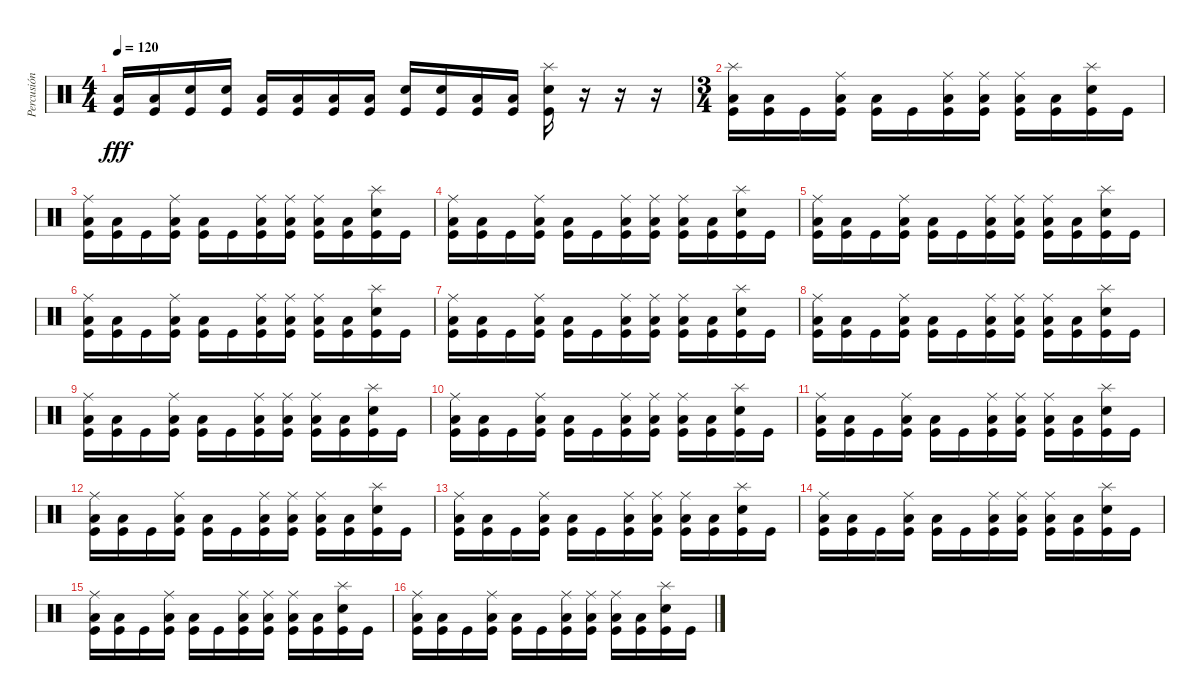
\track ("Percusión" "Percusión") {instrument percussion}
\staff {score}
\articulation defaults
\ts (4 4)
\tempo 120
\clef neutral
\ks c
("Low Floor Tom (hit)" "Kick (hit)").16{dy fff} ("Low Floor Tom (hit)" "Kick (hit)").16 ("Snare (hit) 2" "Kick (hit)").16 ("Snare (hit) 2" "Kick (hit)").16 ("Low Floor Tom (hit)" "Kick (hit)").16 ("Low Floor Tom (hit)" "Kick (hit)").16 ("Low Floor Tom (hit)" "Kick (hit)").16 ("Low Floor Tom (hit)" "Kick (hit)").16 ("Snare (hit) 2" "Kick (hit)").16 ("Snare (hit) 2" "Kick (hit)").16 ("Low Floor Tom (hit)" "Kick (hit)").16 ("Low Floor Tom (hit)" "Kick (hit)").16 ("Splash (hit)" "Snare (hit) 2" "Kick (hit)").16 r.16 r.16 r.16 |
\ts (3 4)
("Splash (hit)" "Low Floor Tom (hit)" "Kick (hit)").16 ("Low Floor Tom (hit)" "Kick (hit)").16 "Kick (hit)".16 ("Ride (middle)" "Low Floor Tom (hit)" "Kick (hit)").16 ("Low Floor Tom (hit)" "Kick (hit)").16 "Kick (hit)".16 ("Ride (middle)" "Low Floor Tom (hit)" "Kick (hit)").16 ("Ride (middle)" "Low Floor Tom (hit)" "Kick (hit)").16 ("Ride (middle)" "Low Floor Tom (hit)" "Kick (hit)").16 ("Low Floor Tom (hit)" "Kick (hit)").16 ("Splash (hit)" "Snare (hit) 2" "Kick (hit)").16 "Kick (hit)".16 |
("Ride (middle)" "Low Floor Tom (hit)" "Kick (hit)").16 ("Low Floor Tom (hit)" "Kick (hit)").16 "Kick (hit)".16 ("Ride (middle)" "Low Floor Tom (hit)" "Kick (hit)").16 ("Low Floor Tom (hit)" "Kick (hit)").16 "Kick (hit)".16 ("Ride (middle)" "Low Floor Tom (hit)" "Kick (hit)").16 ("Ride (middle)" "Low Floor Tom (hit)" "Kick (hit)").16 ("Ride (middle)" "Low Floor Tom (hit)" "Kick (hit)").16 ("Low Floor Tom (hit)" "Kick (hit)").16 ("Splash (hit)" "Snare (hit) 2" "Kick (hit)").16 "Kick (hit)".16 |
("Ride (middle)" "Low Floor Tom (hit)" "Kick (hit)").16 ("Low Floor Tom (hit)" "Kick (hit)").16 "Kick (hit)".16 ("Ride (middle)" "Low Floor Tom (hit)" "Kick (hit)").16 ("Low Floor Tom (hit)" "Kick (hit)").16 "Kick (hit)".16 ("Ride (middle)" "Low Floor Tom (hit)" "Kick (hit)").16 ("Ride (middle)" "Low Floor Tom (hit)" "Kick (hit)").16 ("Ride (middle)" "Low Floor Tom (hit)" "Kick (hit)").16 ("Low Floor Tom (hit)" "Kick (hit)").16 ("Splash (hit)" "Snare (hit) 2" "Kick (hit)").16 "Kick (hit)".16 |
("Ride (middle)" "Low Floor Tom (hit)" "Kick (hit)").16 ("Low Floor Tom (hit)" "Kick (hit)").16 "Kick (hit)".16 ("Ride (middle)" "Low Floor Tom (hit)" "Kick (hit)").16 ("Low Floor Tom (hit)" "Kick (hit)").16 "Kick (hit)".16 ("Ride (middle)" "Low Floor Tom (hit)" "Kick (hit)").16 ("Ride (middle)" "Low Floor Tom (hit)" "Kick (hit)").16 ("Ride (middle)" "Low Floor Tom (hit)" "Kick (hit)").16 ("Low Floor Tom (hit)" "Kick (hit)").16 ("Splash (hit)" "Snare (hit) 2" "Kick (hit)").16 "Kick (hit)".16 |
("Ride (middle)" "Low Floor Tom (hit)" "Kick (hit)").16 ("Low Floor Tom (hit)" "Kick (hit)").16 "Kick (hit)".16 ("Ride (middle)" "Low Floor Tom (hit)" "Kick (hit)").16 ("Low Floor Tom (hit)" "Kick (hit)").16 "Kick (hit)".16 ("Ride (middle)" "Low Floor Tom (hit)" "Kick (hit)").16 ("Ride (middle)" "Low Floor Tom (hit)" "Kick (hit)").16 ("Ride (middle)" "Low Floor Tom (hit)" "Kick (hit)").16 ("Low Floor Tom (hit)" "Kick (hit)").16 ("Splash (hit)" "Snare (hit) 2" "Kick (hit)").16 "Kick (hit)".16 |
("Ride (middle)" "Low Floor Tom (hit)" "Kick (hit)").16 ("Low Floor Tom (hit)" "Kick (hit)").16 "Kick (hit)".16 ("Ride (middle)" "Low Floor Tom (hit)" "Kick (hit)").16 ("Low Floor Tom (hit)" "Kick (hit)").16 "Kick (hit)".16 ("Ride (middle)" "Low Floor Tom (hit)" "Kick (hit)").16 ("Ride (middle)" "Low Floor Tom (hit)" "Kick (hit)").16 ("Ride (middle)" "Low Floor Tom (hit)" "Kick (hit)").16 ("Low Floor Tom (hit)" "Kick (hit)").16 ("Splash (hit)" "Snare (hit) 2" "Kick (hit)").16 "Kick (hit)".16 |
("Ride (middle)" "Low Floor Tom (hit)" "Kick (hit)").16 ("Low Floor Tom (hit)" "Kick (hit)").16 "Kick (hit)".16 ("Ride (middle)" "Low Floor Tom (hit)" "Kick (hit)").16 ("Low Floor Tom (hit)" "Kick (hit)").16 "Kick (hit)".16 ("Ride (middle)" "Low Floor Tom (hit)" "Kick (hit)").16 ("Ride (middle)" "Low Floor Tom (hit)" "Kick (hit)").16 ("Ride (middle)" "Low Floor Tom (hit)" "Kick (hit)").16 ("Low Floor Tom (hit)" "Kick (hit)").16 ("Splash (hit)" "Snare (hit) 2" "Kick (hit)").16 "Kick (hit)".16 |
("Ride (middle)" "Low Floor Tom (hit)" "Kick (hit)").16 ("Low Floor Tom (hit)" "Kick (hit)").16 "Kick (hit)".16 ("Ride (middle)" "Low Floor Tom (hit)" "Kick (hit)").16 ("Low Floor Tom (hit)" "Kick (hit)").16 "Kick (hit)".16 ("Ride (middle)" "Low Floor Tom (hit)" "Kick (hit)").16 ("Ride (middle)" "Low Floor Tom (hit)" "Kick (hit)").16 ("Ride (middle)" "Low Floor Tom (hit)" "Kick (hit)").16 ("Low Floor Tom (hit)" "Kick (hit)").16 ("Splash (hit)" "Snare (hit) 2" "Kick (hit)").16 "Kick (hit)".16 |
("Ride (middle)" "Low Floor Tom (hit)" "Kick (hit)").16 ("Low Floor Tom (hit)" "Kick (hit)").16 "Kick (hit)".16 ("Ride (middle)" "Low Floor Tom (hit)" "Kick (hit)").16 ("Low Floor Tom (hit)" "Kick (hit)").16 "Kick (hit)".16 ("Ride (middle)" "Low Floor Tom (hit)" "Kick (hit)").16 ("Ride (middle)" "Low Floor Tom (hit)" "Kick (hit)").16 ("Ride (middle)" "Low Floor Tom (hit)" "Kick (hit)").16 ("Low Floor Tom (hit)" "Kick (hit)").16 ("Splash (hit)" "Snare (hit) 2" "Kick (hit)").16 "Kick (hit)".16 |
("Ride (middle)" "Low Floor Tom (hit)" "Kick (hit)").16 ("Low Floor Tom (hit)" "Kick (hit)").16 "Kick (hit)".16 ("Ride (middle)" "Low Floor Tom (hit)" "Kick (hit)").16 ("Low Floor Tom (hit)" "Kick (hit)").16 "Kick (hit)".16 ("Ride (middle)" "Low Floor Tom (hit)" "Kick (hit)").16 ("Ride (middle)" "Low Floor Tom (hit)" "Kick (hit)").16 ("Ride (middle)" "Low Floor Tom (hit)" "Kick (hit)").16 ("Low Floor Tom (hit)" "Kick (hit)").16 ("Splash (hit)" "Snare (hit) 2" "Kick (hit)").16 "Kick (hit)".16 |
("Ride (middle)" "Low Floor Tom (hit)" "Kick (hit)").16 ("Low Floor Tom (hit)" "Kick (hit)").16 "Kick (hit)".16 ("Ride (middle)" "Low Floor Tom (hit)" "Kick (hit)").16 ("Low Floor Tom (hit)" "Kick (hit)").16 "Kick (hit)".16 ("Ride (middle)" "Low Floor Tom (hit)" "Kick (hit)").16 ("Ride (middle)" "Low Floor Tom (hit)" "Kick (hit)").16 ("Ride (middle)" "Low Floor Tom (hit)" "Kick (hit)").16 ("Low Floor Tom (hit)" "Kick (hit)").16 ("Splash (hit)" "Snare (hit) 2" "Kick (hit)").16 "Kick (hit)".16 |
("Ride (middle)" "Low Floor Tom (hit)" "Kick (hit)").16 ("Low Floor Tom (hit)" "Kick (hit)").16 "Kick (hit)".16 ("Ride (middle)" "Low Floor Tom (hit)" "Kick (hit)").16 ("Low Floor Tom (hit)" "Kick (hit)").16 "Kick (hit)".16 ("Ride (middle)" "Low Floor Tom (hit)" "Kick (hit)").16 ("Ride (middle)" "Low Floor Tom (hit)" "Kick (hit)").16 ("Ride (middle)" "Low Floor Tom (hit)" "Kick (hit)").16 ("Low Floor Tom (hit)" "Kick (hit)").16 ("Splash (hit)" "Snare (hit) 2" "Kick (hit)").16 "Kick (hit)".16 |
("Ride (middle)" "Low Floor Tom (hit)" "Kick (hit)").16 ("Low Floor Tom (hit)" "Kick (hit)").16 "Kick (hit)".16 ("Ride (middle)" "Low Floor Tom (hit)" "Kick (hit)").16 ("Low Floor Tom (hit)" "Kick (hit)").16 "Kick (hit)".16 ("Ride (middle)" "Low Floor Tom (hit)" "Kick (hit)").16 ("Ride (middle)" "Low Floor Tom (hit)" "Kick (hit)").16 ("Ride (middle)" "Low Floor Tom (hit)" "Kick (hit)").16 ("Low Floor Tom (hit)" "Kick (hit)").16 ("Splash (hit)" "Snare (hit) 2" "Kick (hit)").16 "Kick (hit)".16 |
("Ride (middle)" "Low Floor Tom (hit)" "Kick (hit)").16 ("Low Floor Tom (hit)" "Kick (hit)").16 "Kick (hit)".16 ("Ride (middle)" "Low Floor Tom (hit)" "Kick (hit)").16 ("Low Floor Tom (hit)" "Kick (hit)").16 "Kick (hit)".16 ("Ride (middle)" "Low Floor Tom (hit)" "Kick (hit)").16 ("Ride (middle)" "Low Floor Tom (hit)" "Kick (hit)").16 ("Ride (middle)" "Low Floor Tom (hit)" "Kick (hit)").16 ("Low Floor Tom (hit)" "Kick (hit)").16 ("Splash (hit)" "Snare (hit) 2" "Kick (hit)").16 "Kick (hit)".16 |
("Ride (middle)" "Low Floor Tom (hit)" "Kick (hit)").16 ("Low Floor Tom (hit)" "Kick (hit)").16 "Kick (hit)".16 ("Ride (middle)" "Low Floor Tom (hit)" "Kick (hit)").16 ("Low Floor Tom (hit)" "Kick (hit)").16 "Kick (hit)".16 ("Ride (middle)" "Low Floor Tom (hit)" "Kick (hit)").16 ("Ride (middle)" "Low Floor Tom (hit)" "Kick (hit)").16 ("Ride (middle)" "Low Floor Tom (hit)" "Kick (hit)").16 ("Low Floor Tom (hit)" "Kick (hit)").16 ("Splash (hit)" "Snare (hit) 2" "Kick (hit)").16 "Kick (hit)".16
